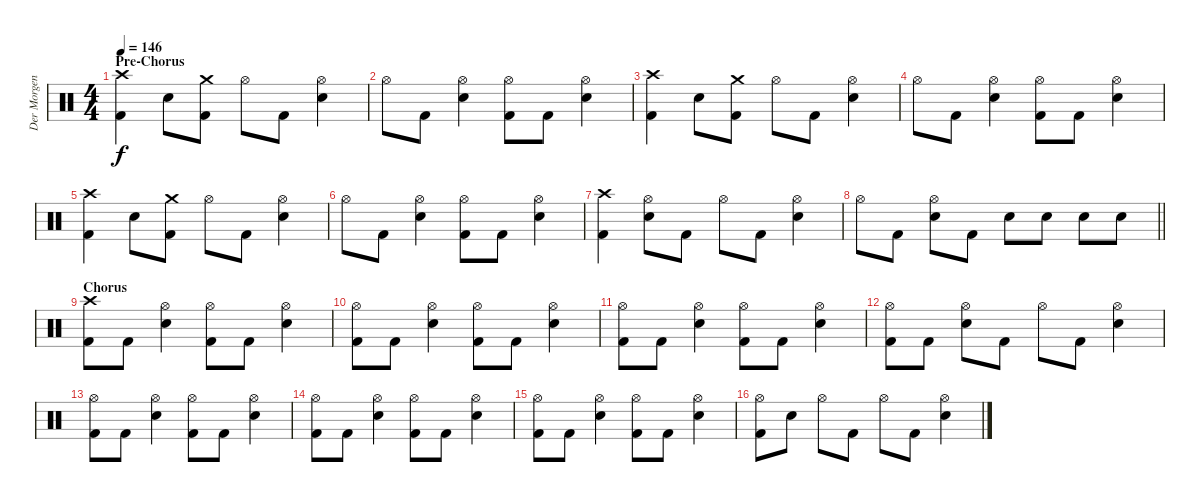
\track ("Der Morgenstern" "Der Morgen") {instrument percussion}
\staff {score}
\articulation defaults
\ts (4 4)
\section ("" "Pre-Chorus")
\tempo 146
\clef neutral
\ks c
("Crash high (hit)" "Kick (hit) 2").4{dy f} "Electric Snare (hit)".8 ("Crash medium (hit)" "Kick (hit) 2").8 "Hi-Hat (open)".8 "Kick (hit) 2".8 ("Hi-Hat (open)" "Electric Snare (hit)").4 |
"Hi-Hat (open)".8 "Kick (hit) 2".8 ("Hi-Hat (open)" "Electric Snare (hit)").4 ("Hi-Hat (open)" "Kick (hit) 2").8 "Kick (hit) 2".8 ("Hi-Hat (open)" "Electric Snare (hit)").4 |
("Crash high (hit)" "Kick (hit) 2").4 "Electric Snare (hit)".8 ("Crash medium (hit)" "Kick (hit) 2").8 "Hi-Hat (open)".8 "Kick (hit) 2".8 ("Hi-Hat (open)" "Electric Snare (hit)").4 |
"Hi-Hat (open)".8 "Kick (hit) 2".8 ("Hi-Hat (open)" "Electric Snare (hit)").4 ("Hi-Hat (open)" "Kick (hit) 2").8 "Kick (hit) 2".8 ("Hi-Hat (open)" "Electric Snare (hit)").4 |
("Crash high (hit)" "Kick (hit) 2").4 "Electric Snare (hit)".8 ("Crash medium (hit)" "Kick (hit) 2").8 "Hi-Hat (open)".8 "Kick (hit) 2".8 ("Hi-Hat (open)" "Electric Snare (hit)").4 |
"Hi-Hat (open)".8 "Kick (hit) 2".8 ("Hi-Hat (open)" "Electric Snare (hit)").4 ("Hi-Hat (open)" "Kick (hit) 2").8 "Kick (hit) 2".8 ("Hi-Hat (open)" "Electric Snare (hit)").4 |
("Crash high (hit)" "Kick (hit) 2").4 ("Hi-Hat (open)" "Electric Snare (hit)").8 "Kick (hit) 2".8 "Hi-Hat (open)".8 "Kick (hit) 2".8 ("Hi-Hat (open)" "Electric Snare (hit)").4 |
\barLineRight lightlight "Hi-Hat (open)".8 "Kick (hit) 2".8
("Hi-Hat (open)" "Electric Snare (hit)").8 "Kick (hit) 2".8 "Electric Snare (hit)".8 "Electric Snare (hit)".8 "Electric Snare (hit)".8 "Electric Snare (hit)".8 |
\section ("" "Chorus")
("Crash high (hit)" "Kick (hit) 2").8 "Kick (hit) 2".8 ("Hi-Hat (open)" "Electric Snare (hit)").4 ("Hi-Hat (open)" "Kick (hit) 2").8 "Kick (hit) 2".8 ("Hi-Hat (open)" "Electric Snare (hit)").4 |
("Hi-Hat (open)" "Kick (hit) 2").8 "Kick (hit) 2".8 ("Hi-Hat (open)" "Electric Snare (hit)").4 ("Hi-Hat (open)" "Kick (hit) 2").8 "Kick (hit) 2".8 ("Hi-Hat (open)" "Electric Snare (hit)").4 |
("Hi-Hat (open)" "Kick (hit) 2").8 "Kick (hit) 2".8 ("Hi-Hat (open)" "Electric Snare (hit)").4 ("Hi-Hat (open)" "Kick (hit) 2").8 "Kick (hit) 2".8 ("Hi-Hat (open)" "Electric Snare (hit)").4 |
("Hi-Hat (open)" "Kick (hit) 2").8 "Kick (hit) 2".8 ("Hi-Hat (open)" "Electric Snare (hit)").8 "Kick (hit) 2".8 "Hi-Hat (open)".8 "Kick (hit) 2".8 ("Hi-Hat (open)" "Electric Snare (hit)").4 |
("Hi-Hat (open)" "Kick (hit) 2").8 "Kick (hit) 2".8 ("Hi-Hat (open)" "Electric Snare (hit)").4 ("Hi-Hat (open)" "Kick (hit) 2").8 "Kick (hit) 2".8 ("Hi-Hat (open)" "Electric Snare (hit)").4 |
("Hi-Hat (open)" "Kick (hit) 2").8 "Kick (hit) 2".8 ("Hi-Hat (open)" "Electric Snare (hit)").4 ("Hi-Hat (open)" "Kick (hit) 2").8 "Kick (hit) 2".8 ("Hi-Hat (open)" "Electric Snare (hit)").4 |
("Hi-Hat (open)" "Kick (hit) 2").8 "Kick (hit) 2".8 ("Hi-Hat (open)" "Electric Snare (hit)").4 ("Hi-Hat (open)" "Kick (hit) 2").8 "Kick (hit) 2".8 ("Hi-Hat (open)" "Electric Snare (hit)").4 |
("Hi-Hat (open)" "Kick (hit) 2").8 "Electric Snare (hit)".8 "Hi-Hat (open)".8 "Kick (hit) 2".8 "Hi-Hat (open)".8 "Kick (hit) 2".8 ("Hi-Hat (open)" "Electric Snare (hit)").4
